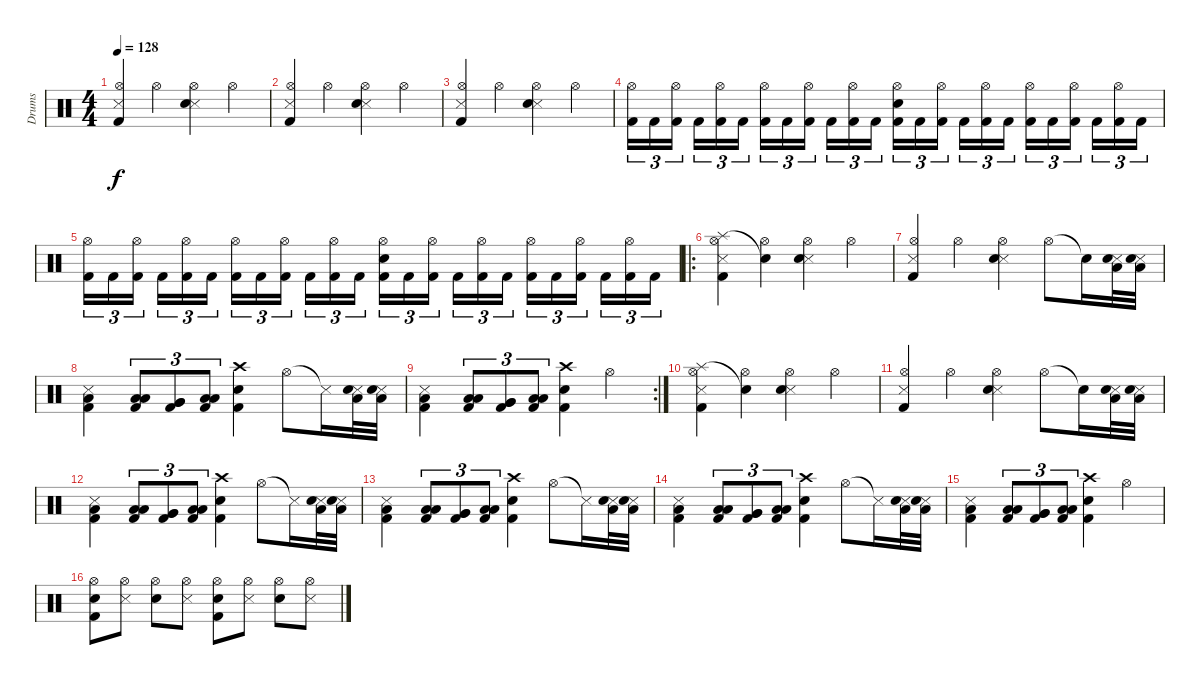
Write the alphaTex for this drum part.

\track ("Drums" "Drums") {instrument percussion}
\staff {score}
\articulation defaults
\ts (4 4)
\tempo 128
\clef neutral
\ks c
("Snare (side stick) 3" "Hi-Hat (open)" "Kick (hit) 2").4{dy f} "Hi-Hat (open)".4 ("Snare (side stick) 3" "Hi-Hat (open)" "Electric Snare (hit)").4 "Hi-Hat (open)".4 |
("Snare (side stick) 3" "Hi-Hat (open)" "Kick (hit) 2").4 "Hi-Hat (open)".4 ("Snare (side stick) 3" "Hi-Hat (open)" "Electric Snare (hit)").4 "Hi-Hat (open)".4 |
("Snare (side stick) 3" "Hi-Hat (open)" "Kick (hit) 2").4 "Hi-Hat (open)".4 ("Snare (side stick) 3" "Hi-Hat (open)" "Electric Snare (hit)").4 "Hi-Hat (open)".4 |
("Hi-Hat (open)" "Kick (hit) 2").16{tu (3 2)} "Kick (hit) 2".16{tu (3 2)} ("Hi-Hat (open)" "Kick (hit) 2").16{tu (3 2) beam splitsecondary} "Kick (hit) 2".16{tu (3 2)} ("Hi-Hat (open)" "Kick (hit) 2").16{tu (3 2)} "Kick (hit) 2".16{tu (3 2)} ("Hi-Hat (open)" "Kick (hit) 2").16{tu (3 2)} "Kick (hit) 2".16{tu (3 2)} ("Hi-Hat (open)" "Kick (hit) 2").16{tu (3 2) beam splitsecondary} "Kick (hit) 2".16{tu (3 2)} ("Hi-Hat (open)" "Kick (hit) 2").16{tu (3 2)} "Kick (hit) 2".16{tu (3 2)} ("Hi-Hat (open)" "Electric Snare (hit)" "Kick (hit) 2").16{tu (3 2)} "Kick (hit) 2".16{tu (3 2)} ("Hi-Hat (open)" "Kick (hit) 2").16{tu (3 2) beam splitsecondary} "Kick (hit) 2".16{tu (3 2)} ("Hi-Hat (open)" "Kick (hit) 2").16{tu (3 2)} "Kick (hit) 2".16{tu (3 2)} ("Hi-Hat (open)" "Kick (hit) 2").16{tu (3 2)} "Kick (hit) 2".16{tu (3 2)} ("Hi-Hat (open)" "Kick (hit) 2").16{tu (3 2) beam splitsecondary} "Kick (hit) 2".16{tu (3 2)} ("Hi-Hat (open)" "Kick (hit) 2").16{tu (3 2)} "Kick (hit) 2".16{tu (3 2)} |
("Hi-Hat (open)" "Kick (hit) 2").16{tu (3 2)} "Kick (hit) 2".16{tu (3 2)} ("Hi-Hat (open)" "Kick (hit) 2").16{tu (3 2) beam splitsecondary} "Kick (hit) 2".16{tu (3 2)} ("Hi-Hat (open)" "Kick (hit) 2").16{tu (3 2)} "Kick (hit) 2".16{tu (3 2)} ("Hi-Hat (open)" "Kick (hit) 2").16{tu (3 2)} "Kick (hit) 2".16{tu (3 2)} ("Hi-Hat (open)" "Kick (hit) 2").16{tu (3 2) beam splitsecondary} "Kick (hit) 2".16{tu (3 2)} ("Hi-Hat (open)" "Kick (hit) 2").16{tu (3 2)} "Kick (hit) 2".16{tu (3 2)} ("Hi-Hat (open)" "Electric Snare (hit)" "Kick (hit) 2").16{tu (3 2)} "Kick (hit) 2".16{tu (3 2)} ("Hi-Hat (open)" "Kick (hit) 2").16{tu (3 2) beam splitsecondary} "Kick (hit) 2".16{tu (3 2)} ("Hi-Hat (open)" "Kick (hit) 2").16{tu (3 2)} "Kick (hit) 2".16{tu (3 2)} ("Hi-Hat (open)" "Kick (hit) 2").16{tu (3 2)} "Kick (hit) 2".16{tu (3 2)} ("Hi-Hat (open)" "Kick (hit) 2").16{tu (3 2) beam splitsecondary} "Kick (hit) 2".16{tu (3 2)} ("Hi-Hat (open)" "Kick (hit) 2").16{tu (3 2)} "Kick (hit) 2".16{tu (3 2)} |
\ro
("Splash (hit)" "Snare (side stick) 3" "Hi-Hat (open)" "Kick (hit) 2").4 ("Snare (hit)"{t} "Hi-Hat (open)").4 ("Snare (side stick) 3" "Hi-Hat (open)" "Electric Snare (hit)").4 "Hi-Hat (open)".4 |
("Snare (side stick) 3" "Hi-Hat (open)" "Kick (hit) 2").4 "Hi-Hat (open)".4 ("Snare (side stick) 3" "Hi-Hat (open)" "Electric Snare (hit)").4 "Hi-Hat (open)".8 "Snare (hit)"{t}.16 ("Snare (side stick) 3" "Low Floor Tom (hit)" "Electric Snare (hit)").32 ("Snare (side stick) 3" "Low Floor Tom (hit)" "Electric Snare (hit)").32 |
("Snare (side stick) 3" "Low Floor Tom (hit)" "Kick (hit) 2").4 ("Low Tom (hit)" "Low Tom (hit)" "Kick (hit) 2").8{tu (3 2)} ("Very Low Tom (hit)" "Very Low Tom (hit)" "Kick (hit) 2").8{tu (3 2)} ("Low Floor Tom (hit)" "Low Floor Tom (hit)" "Kick (hit) 2").8{tu (3 2)} ("Crash high (hit)" "Electric Snare (hit)" "Kick (hit) 2").4 "Hi-Hat (open)".8 "Snare (side stick) 3"{t}.16 ("Snare (side stick) 3" "Low Floor Tom (hit)" "Electric Snare (hit)").32 ("Snare (side stick) 3" "Low Floor Tom (hit)" "Electric Snare (hit)").32 |
\rc 2
("Snare (side stick) 3" "Low Floor Tom (hit)" "Kick (hit) 2").4 ("Low Tom (hit)" "Low Tom (hit)" "Kick (hit) 2").8{tu (3 2)} ("Very Low Tom (hit)" "Very Low Tom (hit)" "Kick (hit) 2").8{tu (3 2)} ("Low Floor Tom (hit)" "Low Floor Tom (hit)" "Kick (hit) 2").8{tu (3 2)} ("Crash high (hit)" "Electric Snare (hit)" "Kick (hit) 2").4 "Hi-Hat (open)".4 |
("Splash (hit)" "Snare (side stick) 3" "Hi-Hat (open)" "Kick (hit) 2").4 ("Snare (hit)"{t} "Hi-Hat (open)").4 ("Snare (side stick) 3" "Hi-Hat (open)" "Electric Snare (hit)").4 "Hi-Hat (open)".4 |
("Snare (side stick) 3" "Hi-Hat (open)" "Kick (hit) 2").4 "Hi-Hat (open)".4 ("Snare (side stick) 3" "Hi-Hat (open)" "Electric Snare (hit)").4 "Hi-Hat (open)".8 "Snare (hit)"{t}.16 ("Snare (side stick) 3" "Low Floor Tom (hit)" "Electric Snare (hit)").32 ("Snare (side stick) 3" "Low Floor Tom (hit)" "Electric Snare (hit)").32 |
("Snare (side stick) 3" "Low Floor Tom (hit)" "Kick (hit) 2").4 ("Low Tom (hit)" "Low Tom (hit)" "Kick (hit) 2").8{tu (3 2)} ("Very Low Tom (hit)" "Very Low Tom (hit)" "Kick (hit) 2").8{tu (3 2)} ("Low Floor Tom (hit)" "Low Floor Tom (hit)" "Kick (hit) 2").8{tu (3 2)} ("Crash high (hit)" "Electric Snare (hit)" "Kick (hit) 2").4 "Hi-Hat (open)".8 "Snare (side stick) 3"{t}.16 ("Snare (side stick) 3" "Low Floor Tom (hit)" "Electric Snare (hit)").32 ("Snare (side stick) 3" "Low Floor Tom (hit)" "Electric Snare (hit)").32 |
("Snare (side stick) 3" "Low Floor Tom (hit)" "Kick (hit) 2").4 ("Low Tom (hit)" "Low Tom (hit)" "Kick (hit) 2").8{tu (3 2)} ("Very Low Tom (hit)" "Very Low Tom (hit)" "Kick (hit) 2").8{tu (3 2)} ("Low Floor Tom (hit)" "Low Floor Tom (hit)" "Kick (hit) 2").8{tu (3 2)} ("Crash high (hit)" "Electric Snare (hit)" "Kick (hit) 2").4 "Hi-Hat (open)".8 "Snare (side stick) 3"{t}.16 ("Snare (side stick) 3" "Low Floor Tom (hit)" "Electric Snare (hit)").32 ("Snare (side stick) 3" "Low Floor Tom (hit)" "Electric Snare (hit)").32 |
("Snare (side stick) 3" "Low Floor Tom (hit)" "Kick (hit) 2").4 ("Low Tom (hit)" "Low Tom (hit)" "Kick (hit) 2").8{tu (3 2)} ("Very Low Tom (hit)" "Very Low Tom (hit)" "Kick (hit) 2").8{tu (3 2)} ("Low Floor Tom (hit)" "Low Floor Tom (hit)" "Kick (hit) 2").8{tu (3 2)} ("Crash high (hit)" "Electric Snare (hit)" "Kick (hit) 2").4 "Hi-Hat (open)".8 "Snare (side stick) 3"{t}.16 ("Snare (side stick) 3" "Low Floor Tom (hit)" "Electric Snare (hit)").32 ("Snare (side stick) 3" "Low Floor Tom (hit)" "Electric Snare (hit)").32 |
("Snare (side stick) 3" "Low Floor Tom (hit)" "Kick (hit) 2").4 ("Low Tom (hit)" "Low Tom (hit)" "Kick (hit) 2").8{tu (3 2)} ("Very Low Tom (hit)" "Very Low Tom (hit)" "Kick (hit) 2").8{tu (3 2)} ("Low Floor Tom (hit)" "Low Floor Tom (hit)" "Kick (hit) 2").8{tu (3 2)} ("Crash high (hit)" "Electric Snare (hit)" "Kick (hit) 2").4 "Hi-Hat (open)".4 |
("Electric Snare (hit)" "Hi-Hat (open)" "Kick (hit) 2").8 ("Hi-Hat (open)" "Snare (side stick) 3").8 ("Electric Snare (hit)" "Hi-Hat (open)").8 ("Hi-Hat (open)" "Snare (side stick) 3").8 ("Electric Snare (hit)" "Hi-Hat (open)" "Kick (hit) 2").8 ("Hi-Hat (open)" "Snare (side stick) 3").8 ("Electric Snare (hit)" "Hi-Hat (open)").8 ("Hi-Hat (open)" "Snare (side stick) 3").8
